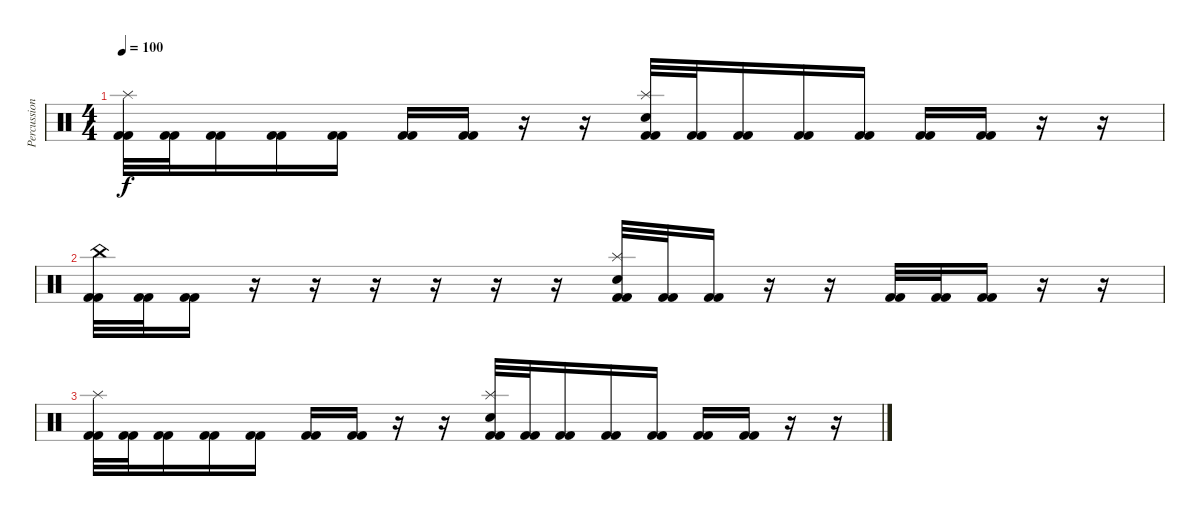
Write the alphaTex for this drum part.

\track ("Percussion" "Percussion") {instrument percussion}
\staff {score}
\articulation defaults
\ts (4 4)
\tempo 100
\clef neutral
\ks c
("Kick (hit) 2" "Splash (hit)" "Kick (hit) 2").32{dy f} ("Kick (hit) 2" "Kick (hit) 2").32 ("Kick (hit) 2" "Kick (hit) 2").16 ("Kick (hit) 2" "Kick (hit) 2").16 ("Kick (hit) 2" "Kick (hit) 2").16 ("Kick (hit) 2" "Kick (hit) 2").16 ("Kick (hit) 2" "Kick (hit) 2").16 r.16 r.16 ("Kick (hit) 2" "Splash (hit)" "Electric Snare (hit)" "Kick (hit) 2").32 ("Kick (hit) 2" "Kick (hit) 2").32 ("Kick (hit) 2" "Kick (hit) 2").16 ("Kick (hit) 2" "Kick (hit) 2").16 ("Kick (hit) 2" "Kick (hit) 2").16 ("Kick (hit) 2" "Kick (hit) 2").16 ("Kick (hit) 2" "Kick (hit) 2").16 r.16 r.16 |
("Kick (hit) 2" "China (hit)" "Kick (hit) 2").32 ("Kick (hit) 2" "Kick (hit) 2").32 ("Kick (hit) 2" "Kick (hit) 2").16 r.16 r.16 r.16 r.16 r.16 r.16 ("Kick (hit) 2" "Splash (hit)" "Electric Snare (hit)" "Kick (hit) 2").32 ("Kick (hit) 2" "Kick (hit) 2").32 ("Kick (hit) 2" "Kick (hit) 2").16 r.16 r.16 ("Kick (hit) 2" "Kick (hit) 2").32 ("Kick (hit) 2" "Kick (hit) 2").32 ("Kick (hit) 2" "Kick (hit) 2").16 r.16 r.16 |
("Kick (hit) 2" "Splash (hit)" "Kick (hit) 2").32 ("Kick (hit) 2" "Kick (hit) 2").32 ("Kick (hit) 2" "Kick (hit) 2").16 ("Kick (hit) 2" "Kick (hit) 2").16 ("Kick (hit) 2" "Kick (hit) 2").16 ("Kick (hit) 2" "Kick (hit) 2").16 ("Kick (hit) 2" "Kick (hit) 2").16 r.16 r.16 ("Kick (hit) 2" "Splash (hit)" "Electric Snare (hit)" "Kick (hit) 2").32 ("Kick (hit) 2" "Kick (hit) 2").32 ("Kick (hit) 2" "Kick (hit) 2").16 ("Kick (hit) 2" "Kick (hit) 2").16 ("Kick (hit) 2" "Kick (hit) 2").16 ("Kick (hit) 2" "Kick (hit) 2").16 ("Kick (hit) 2" "Kick (hit) 2").16 r.16 r.16
